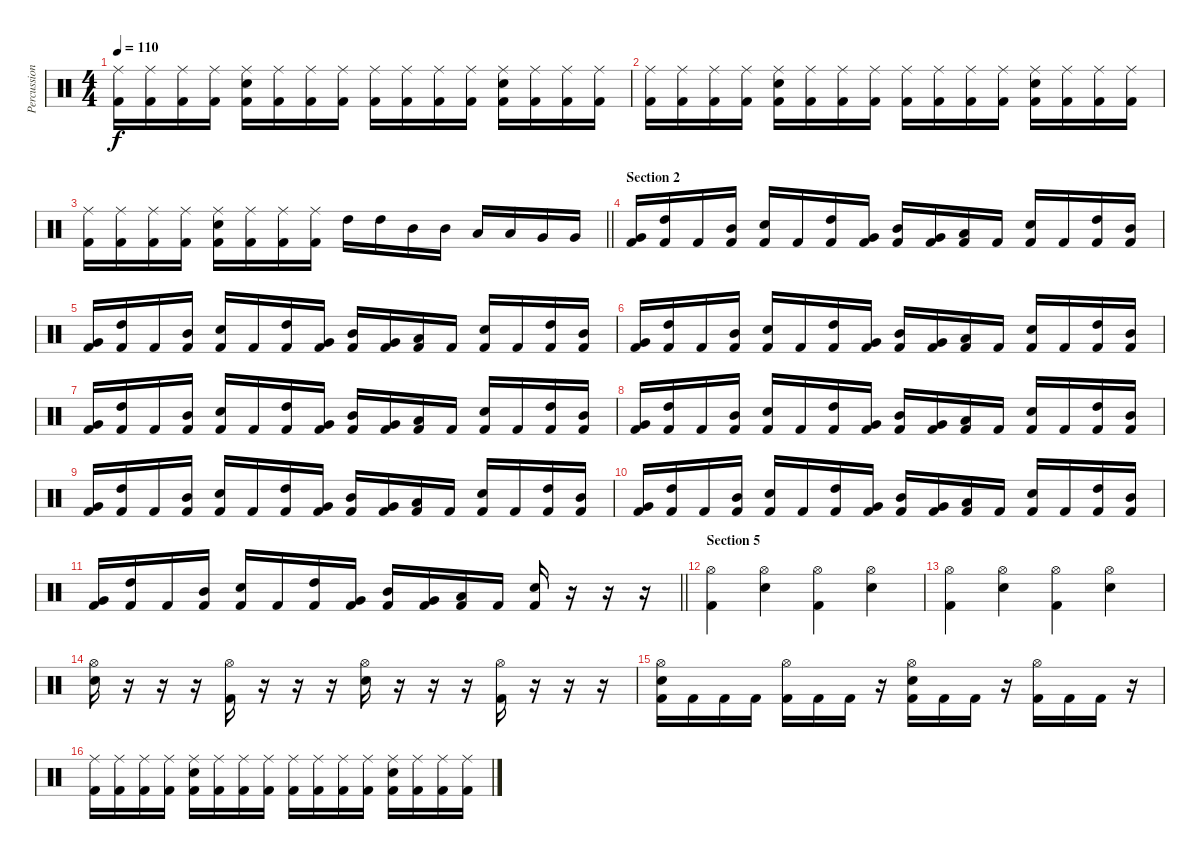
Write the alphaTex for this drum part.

\track ("Percussions" "Percussion") {instrument percussion}
\staff {score}
\articulation defaults
\ts (4 4)
\tempo 110
\clef neutral
\ks c
("Kick (hit) 2" "Ride (middle)").16{dy f} ("Kick (hit) 2" "Ride (middle)").16 ("Kick (hit) 2" "Ride (middle)").16 ("Kick (hit) 2" "Ride (middle)").16 ("Kick (hit) 2" "Electric Snare (hit)" "Ride (middle)").16 ("Kick (hit) 2" "Ride (middle)").16 ("Kick (hit) 2" "Ride (middle)").16 ("Kick (hit) 2" "Ride (middle)").16 ("Kick (hit) 2" "Ride (middle)").16 ("Kick (hit) 2" "Ride (middle)").16 ("Kick (hit) 2" "Ride (middle)").16 ("Kick (hit) 2" "Ride (middle)").16 ("Kick (hit) 2" "Electric Snare (hit)" "Ride (middle)").16 ("Kick (hit) 2" "Ride (middle)").16 ("Kick (hit) 2" "Ride (middle)").16 ("Kick (hit) 2" "Ride (middle)").16 |
("Kick (hit) 2" "Ride (middle)").16 ("Kick (hit) 2" "Ride (middle)").16 ("Kick (hit) 2" "Ride (middle)").16 ("Kick (hit) 2" "Ride (middle)").16 ("Kick (hit) 2" "Electric Snare (hit)" "Ride (middle)").16 ("Kick (hit) 2" "Ride (middle)").16 ("Kick (hit) 2" "Ride (middle)").16 ("Kick (hit) 2" "Ride (middle)").16 ("Kick (hit) 2" "Ride (middle)").16 ("Kick (hit) 2" "Ride (middle)").16 ("Kick (hit) 2" "Ride (middle)").16 ("Kick (hit) 2" "Ride (middle)").16 ("Kick (hit) 2" "Electric Snare (hit)" "Ride (middle)").16 ("Kick (hit) 2" "Ride (middle)").16 ("Kick (hit) 2" "Ride (middle)").16 ("Kick (hit) 2" "Ride (middle)").16 |
\barLineRight lightlight
("Kick (hit) 2" "Ride (middle)").16 ("Kick (hit) 2" "Ride (middle)").16 ("Kick (hit) 2" "Ride (middle)").16 ("Kick (hit) 2" "Ride (middle)").16 ("Kick (hit) 2" "Electric Snare (hit)" "Ride (middle)").16 ("Kick (hit) 2" "Ride (middle)").16 ("Kick (hit) 2" "Ride (middle)").16 ("Kick (hit) 2" "Ride (middle)").16 "High Tom (hit)".16 "High Tom (hit)".16 "Mid Tom (hit)".16 "Mid Tom (hit)".16 "Low Tom (hit)".16 "Low Tom (hit)".16 "Very Low Tom (hit)".16 "Very Low Tom (hit)".16 |
\section ("" "Section 2")
("Kick (hit) 2" "Very Low Tom (hit)").16 ("Kick (hit) 2" "High Tom (hit)").16 "Kick (hit) 2".16 ("Kick (hit) 2" "Mid Tom (hit)").16 ("Kick (hit) 2" "Electric Snare (hit)").16 "Kick (hit) 2".16 ("Kick (hit) 2" "High Tom (hit)").16 ("Kick (hit) 2" "Very Low Tom (hit)").16 ("Kick (hit) 2" "Mid Tom (hit)").16 ("Kick (hit) 2" "Very Low Tom (hit)").16 ("Kick (hit) 2" "Low Tom (hit)").16 "Kick (hit) 2".16 ("Kick (hit) 2" "Electric Snare (hit)").16 "Kick (hit) 2".16 ("Kick (hit) 2" "High Tom (hit)").16 ("Kick (hit) 2" "Mid Tom (hit)").16 |
("Kick (hit) 2" "Very Low Tom (hit)").16 ("Kick (hit) 2" "High Tom (hit)").16 "Kick (hit) 2".16 ("Kick (hit) 2" "Mid Tom (hit)").16 ("Kick (hit) 2" "Electric Snare (hit)").16 "Kick (hit) 2".16 ("Kick (hit) 2" "High Tom (hit)").16 ("Kick (hit) 2" "Very Low Tom (hit)").16 ("Kick (hit) 2" "Mid Tom (hit)").16 ("Kick (hit) 2" "Very Low Tom (hit)").16 ("Kick (hit) 2" "Low Tom (hit)").16 "Kick (hit) 2".16 ("Kick (hit) 2" "Electric Snare (hit)").16 "Kick (hit) 2".16 ("Kick (hit) 2" "High Tom (hit)").16 ("Kick (hit) 2" "Mid Tom (hit)").16 |
("Kick (hit) 2" "Very Low Tom (hit)").16 ("Kick (hit) 2" "High Tom (hit)").16 "Kick (hit) 2".16 ("Kick (hit) 2" "Mid Tom (hit)").16 ("Kick (hit) 2" "Electric Snare (hit)").16 "Kick (hit) 2".16 ("Kick (hit) 2" "High Tom (hit)").16 ("Kick (hit) 2" "Very Low Tom (hit)").16 ("Kick (hit) 2" "Mid Tom (hit)").16 ("Kick (hit) 2" "Very Low Tom (hit)").16 ("Kick (hit) 2" "Low Tom (hit)").16 "Kick (hit) 2".16 ("Kick (hit) 2" "Electric Snare (hit)").16 "Kick (hit) 2".16 ("Kick (hit) 2" "High Tom (hit)").16 ("Kick (hit) 2" "Mid Tom (hit)").16 |
("Kick (hit) 2" "Very Low Tom (hit)").16 ("Kick (hit) 2" "High Tom (hit)").16 "Kick (hit) 2".16 ("Kick (hit) 2" "Mid Tom (hit)").16 ("Kick (hit) 2" "Electric Snare (hit)").16 "Kick (hit) 2".16 ("Kick (hit) 2" "High Tom (hit)").16 ("Kick (hit) 2" "Very Low Tom (hit)").16 ("Kick (hit) 2" "Mid Tom (hit)").16 ("Kick (hit) 2" "Very Low Tom (hit)").16 ("Kick (hit) 2" "Low Tom (hit)").16 "Kick (hit) 2".16 ("Kick (hit) 2" "Electric Snare (hit)").16 "Kick (hit) 2".16 ("Kick (hit) 2" "High Tom (hit)").16 ("Kick (hit) 2" "Mid Tom (hit)").16 |
("Kick (hit) 2" "Very Low Tom (hit)").16 ("Kick (hit) 2" "High Tom (hit)").16 "Kick (hit) 2".16 ("Kick (hit) 2" "Mid Tom (hit)").16 ("Kick (hit) 2" "Electric Snare (hit)").16 "Kick (hit) 2".16 ("Kick (hit) 2" "High Tom (hit)").16 ("Kick (hit) 2" "Very Low Tom (hit)").16 ("Kick (hit) 2" "Mid Tom (hit)").16 ("Kick (hit) 2" "Very Low Tom (hit)").16 ("Kick (hit) 2" "Low Tom (hit)").16 "Kick (hit) 2".16 ("Kick (hit) 2" "Electric Snare (hit)").16 "Kick (hit) 2".16 ("Kick (hit) 2" "High Tom (hit)").16 ("Kick (hit) 2" "Mid Tom (hit)").16 |
("Kick (hit) 2" "Very Low Tom (hit)").16 ("Kick (hit) 2" "High Tom (hit)").16 "Kick (hit) 2".16 ("Kick (hit) 2" "Mid Tom (hit)").16 ("Kick (hit) 2" "Electric Snare (hit)").16 "Kick (hit) 2".16 ("Kick (hit) 2" "High Tom (hit)").16 ("Kick (hit) 2" "Very Low Tom (hit)").16 ("Kick (hit) 2" "Mid Tom (hit)").16 ("Kick (hit) 2" "Very Low Tom (hit)").16 ("Kick (hit) 2" "Low Tom (hit)").16 "Kick (hit) 2".16 ("Kick (hit) 2" "Electric Snare (hit)").16 "Kick (hit) 2".16 ("Kick (hit) 2" "High Tom (hit)").16 ("Kick (hit) 2" "Mid Tom (hit)").16 |
("Kick (hit) 2" "Very Low Tom (hit)").16 ("Kick (hit) 2" "High Tom (hit)").16 "Kick (hit) 2".16 ("Kick (hit) 2" "Mid Tom (hit)").16 ("Kick (hit) 2" "Electric Snare (hit)").16 "Kick (hit) 2".16 ("Kick (hit) 2" "High Tom (hit)").16 ("Kick (hit) 2" "Very Low Tom (hit)").16 ("Kick (hit) 2" "Mid Tom (hit)").16 ("Kick (hit) 2" "Very Low Tom (hit)").16 ("Kick (hit) 2" "Low Tom (hit)").16 "Kick (hit) 2".16 ("Kick (hit) 2" "Electric Snare (hit)").16 "Kick (hit) 2".16 ("Kick (hit) 2" "High Tom (hit)").16 ("Kick (hit) 2" "Mid Tom (hit)").16 |
\barLineRight lightlight
("Kick (hit) 2" "Very Low Tom (hit)").16 ("Kick (hit) 2" "High Tom (hit)").16 "Kick (hit) 2".16 ("Kick (hit) 2" "Mid Tom (hit)").16 ("Kick (hit) 2" "Electric Snare (hit)").16 "Kick (hit) 2".16 ("Kick (hit) 2" "High Tom (hit)").16 ("Kick (hit) 2" "Very Low Tom (hit)").16 ("Kick (hit) 2" "Mid Tom (hit)").16 ("Kick (hit) 2" "Very Low Tom (hit)").16 ("Kick (hit) 2" "Low Tom (hit)").16 "Kick (hit) 2".16 ("Kick (hit) 2" "Electric Snare (hit)").16 r.16 r.16 r.16 |
\section ("" "Section 5")
("Kick (hit) 2" "Hi-Hat (open)").4 ("Electric Snare (hit)" "Hi-Hat (open)").4 ("Kick (hit) 2" "Hi-Hat (open)").4 ("Electric Snare (hit)" "Hi-Hat (open)").4 |
("Kick (hit) 2" "Hi-Hat (open)").4 ("Electric Snare (hit)" "Hi-Hat (open)").4 ("Kick (hit) 2" "Hi-Hat (open)").4 ("Electric Snare (hit)" "Hi-Hat (open)").4 |
("Electric Snare (hit)" "Hi-Hat (open)").16 r.16 r.16 r.16 ("Kick (hit) 2" "Hi-Hat (open)").16 r.16 r.16 r.16 ("Electric Snare (hit)" "Hi-Hat (open)").16 r.16 r.16 r.16 ("Kick (hit) 2" "Hi-Hat (open)").16 r.16 r.16 r.16 |
("Kick (hit) 2" "Electric Snare (hit)" "Hi-Hat (open)").16 "Kick (hit) 2".16 "Kick (hit) 2".16 "Kick (hit) 2".16 ("Kick (hit) 2" "Hi-Hat (open)").16 "Kick (hit) 2".16 "Kick (hit) 2".16 r.16 ("Kick (hit) 2" "Electric Snare (hit)" "Hi-Hat (open)").16 "Kick (hit) 2".16 "Kick (hit) 2".16 r.16 ("Kick (hit) 2" "Hi-Hat (open)").16 "Kick (hit) 2".16 "Kick (hit) 2".16 r.16 |
("Kick (hit) 2" "Ride (middle)").16 ("Kick (hit) 2" "Ride (middle)").16 ("Kick (hit) 2" "Ride (middle)").16 ("Kick (hit) 2" "Ride (middle)").16 ("Kick (hit) 2" "Electric Snare (hit)" "Ride (middle)").16 ("Kick (hit) 2" "Ride (middle)").16 ("Kick (hit) 2" "Ride (middle)").16 ("Kick (hit) 2" "Ride (middle)").16 ("Kick (hit) 2" "Ride (middle)").16 ("Kick (hit) 2" "Ride (middle)").16 ("Kick (hit) 2" "Ride (middle)").16 ("Kick (hit) 2" "Ride (middle)").16 ("Kick (hit) 2" "Electric Snare (hit)" "Ride (middle)").16 ("Kick (hit) 2" "Ride (middle)").16 ("Kick (hit) 2" "Ride (middle)").16 ("Kick (hit) 2" "Ride (middle)").16
